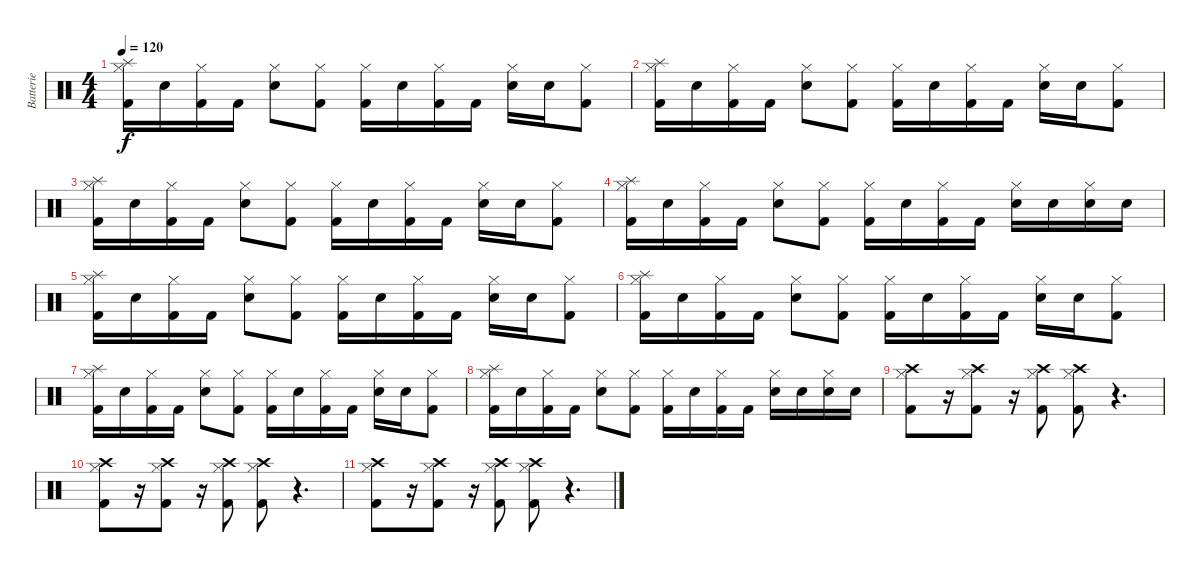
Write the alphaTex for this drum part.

\track ("Batterie" "Batterie") {instrument percussion}
\staff {score}
\articulation defaults
\ts (4 4)
\tempo 120
\clef neutral
\ks c
("Splash (hit)" "Hi-Hat (closed)" "Kick (hit) 2").16{dy f} "Snare (hit) 2".16 ("Hi-Hat (closed)" "Kick (hit) 2").16 "Kick (hit) 2".16 ("Hi-Hat (closed)" "Snare (hit) 2").8 ("Hi-Hat (closed)" "Kick (hit) 2").8 ("Hi-Hat (closed)" "Kick (hit) 2").16 "Snare (hit) 2".16 ("Hi-Hat (closed)" "Kick (hit) 2").16 "Kick (hit) 2".16 ("Hi-Hat (closed)" "Snare (hit) 2").16 "Snare (hit) 2".16 ("Hi-Hat (closed)" "Kick (hit) 2").8 |
("Splash (hit)" "Hi-Hat (closed)" "Kick (hit) 2").16 "Snare (hit) 2".16 ("Hi-Hat (closed)" "Kick (hit) 2").16 "Kick (hit) 2".16 ("Hi-Hat (closed)" "Snare (hit) 2").8 ("Hi-Hat (closed)" "Kick (hit) 2").8 ("Hi-Hat (closed)" "Kick (hit) 2").16 "Snare (hit) 2".16 ("Hi-Hat (closed)" "Kick (hit) 2").16 "Kick (hit) 2".16 ("Hi-Hat (closed)" "Snare (hit) 2").16 "Snare (hit) 2".16 ("Hi-Hat (closed)" "Kick (hit) 2").8 |
("Splash (hit)" "Hi-Hat (closed)" "Kick (hit) 2").16 "Snare (hit) 2".16 ("Hi-Hat (closed)" "Kick (hit) 2").16 "Kick (hit) 2".16 ("Hi-Hat (closed)" "Snare (hit) 2").8 ("Hi-Hat (closed)" "Kick (hit) 2").8 ("Hi-Hat (closed)" "Kick (hit) 2").16 "Snare (hit) 2".16 ("Hi-Hat (closed)" "Kick (hit) 2").16 "Kick (hit) 2".16 ("Hi-Hat (closed)" "Snare (hit) 2").16 "Snare (hit) 2".16 ("Hi-Hat (closed)" "Kick (hit) 2").8 |
("Splash (hit)" "Hi-Hat (closed)" "Kick (hit) 2").16 "Snare (hit) 2".16 ("Hi-Hat (closed)" "Kick (hit) 2").16 "Kick (hit) 2".16 ("Hi-Hat (closed)" "Snare (hit) 2").8 ("Hi-Hat (closed)" "Kick (hit) 2").8 ("Hi-Hat (closed)" "Kick (hit) 2").16 "Snare (hit) 2".16 ("Hi-Hat (closed)" "Kick (hit) 2").16 "Kick (hit) 2".16 ("Hi-Hat (closed)" "Snare (hit) 2").16 "Snare (hit) 2".16 ("Hi-Hat (closed)" "Snare (hit) 2").16 "Snare (hit) 2".16 |
("Splash (hit)" "Hi-Hat (closed)" "Kick (hit) 2").16 "Snare (hit) 2".16 ("Hi-Hat (closed)" "Kick (hit) 2").16 "Kick (hit) 2".16 ("Hi-Hat (closed)" "Snare (hit) 2").8 ("Hi-Hat (closed)" "Kick (hit) 2").8 ("Hi-Hat (closed)" "Kick (hit) 2").16 "Snare (hit) 2".16 ("Hi-Hat (closed)" "Kick (hit) 2").16 "Kick (hit) 2".16 ("Hi-Hat (closed)" "Snare (hit) 2").16 "Snare (hit) 2".16 ("Hi-Hat (closed)" "Kick (hit) 2").8 |
("Splash (hit)" "Hi-Hat (closed)" "Kick (hit) 2").16 "Snare (hit) 2".16 ("Hi-Hat (closed)" "Kick (hit) 2").16 "Kick (hit) 2".16 ("Hi-Hat (closed)" "Snare (hit) 2").8 ("Hi-Hat (closed)" "Kick (hit) 2").8 ("Hi-Hat (closed)" "Kick (hit) 2").16 "Snare (hit) 2".16 ("Hi-Hat (closed)" "Kick (hit) 2").16 "Kick (hit) 2".16 ("Hi-Hat (closed)" "Snare (hit) 2").16 "Snare (hit) 2".16 ("Hi-Hat (closed)" "Kick (hit) 2").8 |
("Splash (hit)" "Hi-Hat (closed)" "Kick (hit) 2").16 "Snare (hit) 2".16 ("Hi-Hat (closed)" "Kick (hit) 2").16 "Kick (hit) 2".16 ("Hi-Hat (closed)" "Snare (hit) 2").8 ("Hi-Hat (closed)" "Kick (hit) 2").8 ("Hi-Hat (closed)" "Kick (hit) 2").16 "Snare (hit) 2".16 ("Hi-Hat (closed)" "Kick (hit) 2").16 "Kick (hit) 2".16 ("Hi-Hat (closed)" "Snare (hit) 2").16 "Snare (hit) 2".16 ("Hi-Hat (closed)" "Kick (hit) 2").8 |
("Splash (hit)" "Hi-Hat (closed)" "Kick (hit) 2").16 "Snare (hit) 2".16 ("Hi-Hat (closed)" "Kick (hit) 2").16 "Kick (hit) 2".16 ("Hi-Hat (closed)" "Snare (hit) 2").8 ("Hi-Hat (closed)" "Kick (hit) 2").8 ("Hi-Hat (closed)" "Kick (hit) 2").16 "Snare (hit) 2".16 ("Hi-Hat (closed)" "Kick (hit) 2").16 "Kick (hit) 2".16 ("Hi-Hat (closed)" "Snare (hit) 2").16 "Snare (hit) 2".16 ("Hi-Hat (closed)" "Snare (hit) 2").16 "Snare (hit) 2".16 |
("Hi-Hat (closed)" "Crash high (hit)" "Kick (hit) 2").8 r.16 ("Hi-Hat (closed)" "Crash high (hit)" "Kick (hit) 2").8 r.16 ("Hi-Hat (closed)" "Crash high (hit)" "Kick (hit) 2").8 ("Hi-Hat (closed)" "Crash high (hit)" "Kick (hit) 2").8 r.4{d} |
("Hi-Hat (closed)" "Crash high (hit)" "Kick (hit) 2").8 r.16 ("Hi-Hat (closed)" "Crash high (hit)" "Kick (hit) 2").8 r.16 ("Hi-Hat (closed)" "Crash high (hit)" "Kick (hit) 2").8 ("Hi-Hat (closed)" "Crash high (hit)" "Kick (hit) 2").8 r.4{d} |
("Hi-Hat (closed)" "Crash high (hit)" "Kick (hit) 2").8 r.16 ("Hi-Hat (closed)" "Crash high (hit)" "Kick (hit) 2").8 r.16 ("Hi-Hat (closed)" "Crash high (hit)" "Kick (hit) 2").8 ("Hi-Hat (closed)" "Crash high (hit)" "Kick (hit) 2").8 r.4{d}
